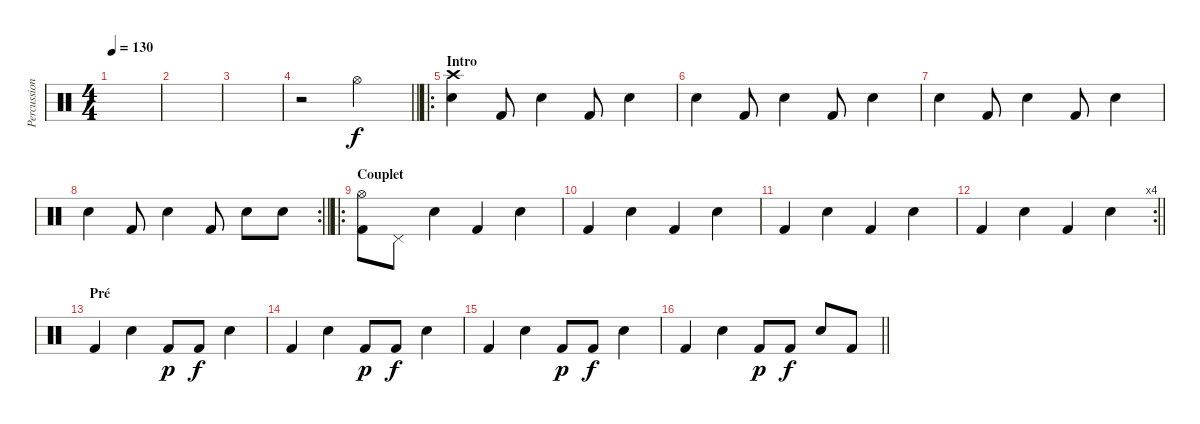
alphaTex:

\track ("Percussions" "Percussion") {instrument percussion}
\staff {score}
\articulation defaults
\ts (4 4)
\tempo 130
\clef neutral
\ks c
|
|
|
\barLineRight lightlight
r.2{volume 10} "Hi-Hat (open)".2 |
\ro
\section ("" "Intro")
("Crash high (hit)" "Snare (hit) 2").4{dy f} "Kick (hit) 2".8 "Snare (hit) 2".4 "Kick (hit) 2".8 "Snare (hit) 2".4 |
"Snare (hit) 2".4 "Kick (hit) 2".8 "Snare (hit) 2".4 "Kick (hit) 2".8 "Snare (hit) 2".4 |
"Snare (hit) 2".4 "Kick (hit) 2".8 "Snare (hit) 2".4 "Kick (hit) 2".8 "Snare (hit) 2".4 |
\rc 2
\barLineRight lightlight "Snare (hit) 2".4 "Kick (hit) 2".8 "Snare (hit) 2".4 "Kick (hit) 2".8 "Snare (hit) 2".8 "Snare (hit) 2".8
|
\ro
\section ("" "Couplet")
("Hi-Hat (open)" "Kick (hit) 2").8 "Pedal Hi-Hat (hit)".8 "Snare (hit) 2".4 "Kick (hit) 2".4 "Snare (hit) 2".4 |
"Kick (hit) 2".4 "Snare (hit) 2".4 "Kick (hit) 2".4 "Snare (hit) 2".4 |
"Kick (hit) 2".4 "Snare (hit) 2".4 "Kick (hit) 2".4 "Snare (hit) 2".4 |
\rc 4
\barLineRight lightlight "Kick (hit) 2".4 "Snare (hit) 2".4 "Kick (hit) 2".4 "Snare (hit) 2".4
|
\section ("" "Pré")
"Kick (hit) 2".4 "Electric Snare (hit)".4 "Kick (hit) 2".8{dy p} "Kick (hit) 2".8{dy f} "Electric Snare (hit)".4 |
"Kick (hit) 2".4 "Electric Snare (hit)".4 "Kick (hit) 2".8{dy p} "Kick (hit) 2".8{dy f} "Electric Snare (hit)".4 |
"Kick (hit) 2".4 "Electric Snare (hit)".4 "Kick (hit) 2".8{dy p} "Kick (hit) 2".8{dy f} "Electric Snare (hit)".4 |
\barLineRight lightlight "Kick (hit) 2".4 "Electric Snare (hit)".4 "Kick (hit) 2".8{dy p} "Kick (hit) 2".8{dy f} "Electric Snare (hit)".8 "Kick (hit) 2".8
